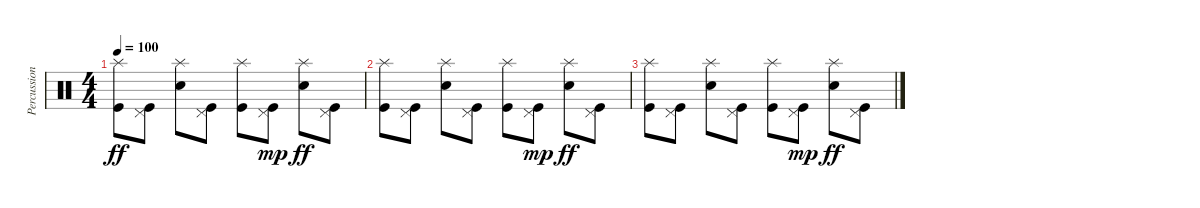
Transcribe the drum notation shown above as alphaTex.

\track ("Percussion" "Percussion") {instrument percussion}
\staff {score}
\articulation defaults
\ts (4 4)
\tempo 100
\clef neutral
\ks c
("Splash (hit)" "Kick (hit)").8{dy ff} ("Pedal Hi-Hat (hit)" "Kick (hit)").8 ("Splash (hit)" "Electric Snare (hit)").8 ("Pedal Hi-Hat (hit)" "Kick (hit)").8 ("Splash (hit)" "Kick (hit)").8 ("Pedal Hi-Hat (hit)" "Kick (hit)").8{dy mp} ("Splash (hit)" "Electric Snare (hit)").8{dy ff} ("Pedal Hi-Hat (hit)" "Kick (hit)").8 |
("Splash (hit)" "Kick (hit)").8 ("Pedal Hi-Hat (hit)" "Kick (hit)").8 ("Splash (hit)" "Electric Snare (hit)").8 ("Pedal Hi-Hat (hit)" "Kick (hit)").8 ("Splash (hit)" "Kick (hit)").8 ("Pedal Hi-Hat (hit)" "Kick (hit)").8{dy mp} ("Splash (hit)" "Electric Snare (hit)").8{dy ff} ("Pedal Hi-Hat (hit)" "Kick (hit)").8 |
("Splash (hit)" "Kick (hit)").8 ("Pedal Hi-Hat (hit)" "Kick (hit)").8 ("Splash (hit)" "Electric Snare (hit)").8 ("Pedal Hi-Hat (hit)" "Kick (hit)").8 ("Splash (hit)" "Kick (hit)").8 ("Pedal Hi-Hat (hit)" "Kick (hit)").8{dy mp} ("Splash (hit)" "Electric Snare (hit)").8{dy ff} ("Pedal Hi-Hat (hit)" "Kick (hit)").8
